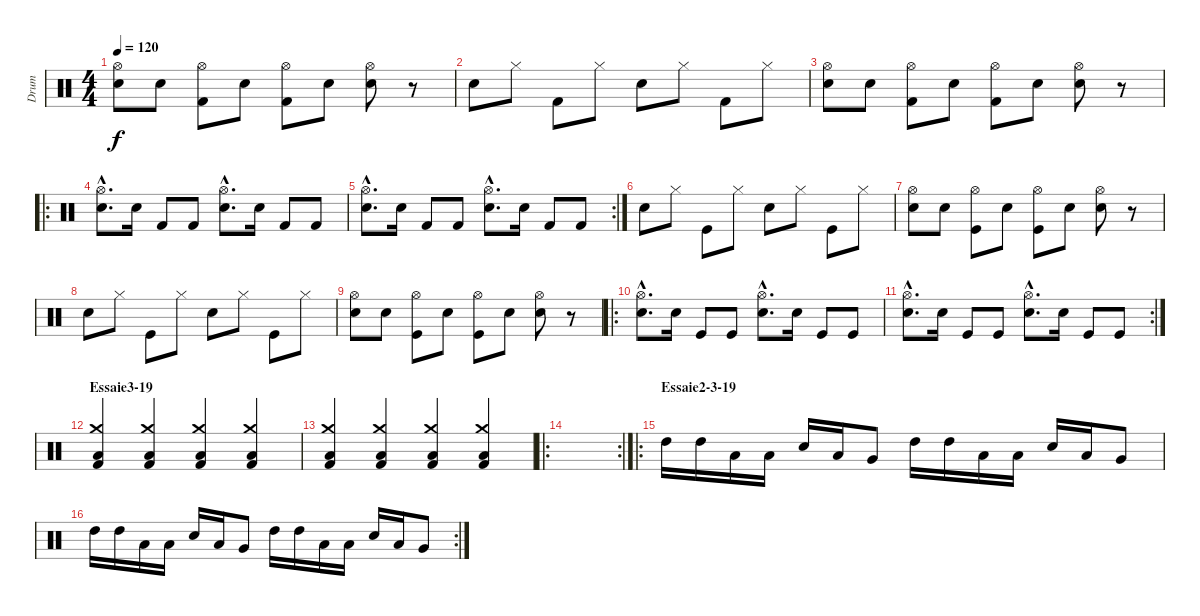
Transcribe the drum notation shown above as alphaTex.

\track ("Drum" "Drum") {instrument percussion}
\staff {score}
\articulation defaults
\ts (4 4)
\tempo 120
\clef neutral
\ks c
("Hi-Hat (open)" "Electric Snare (hit)").8{dy f} "Electric Snare (hit)".8 ("Hi-Hat (open)" "Kick (hit) 2").8 "Electric Snare (hit)".8 ("Hi-Hat (open)" "Kick (hit) 2").8 "Electric Snare (hit)".8 ("Hi-Hat (open)" "Electric Snare (hit)").8 r.8 |
"Snare (hit) 2".8 "Hi-Hat (closed)".8 "Kick (hit) 2".8 "Hi-Hat (closed)".8 "Snare (hit) 2".8 "Hi-Hat (closed)".8 "Kick (hit) 2".8 "Hi-Hat (closed)".8 |
("Hi-Hat (open)" "Snare (hit) 2").8 "Snare (hit) 2".8 ("Hi-Hat (open)" "Kick (hit) 2").8 "Snare (hit) 2".8 ("Hi-Hat (open)" "Kick (hit) 2").8 "Snare (hit) 2".8 ("Hi-Hat (open)" "Snare (hit) 2").8 r.8 |
\ro
("Hi-Hat (open)"{hac} "Snare (hit) 2"{hac}).8{d} "Snare (hit) 2".16 "Kick (hit) 2".8 "Kick (hit) 2".8 ("Hi-Hat (open)"{hac} "Snare (hit) 2"{hac}).8{d} "Snare (hit) 2".16 "Kick (hit) 2".8 "Kick (hit) 2".8 |
\rc 2
("Hi-Hat (open)"{hac} "Snare (hit) 2"{hac}).8{d} "Snare (hit) 2".16 "Kick (hit) 2".8 "Kick (hit) 2".8 ("Hi-Hat (open)"{hac} "Snare (hit) 2"{hac}).8{d} "Snare (hit) 2".16 "Kick (hit) 2".8 "Kick (hit) 2".8 |
"Snare (hit) 2".8 "Hi-Hat (closed)".8 "Kick (hit)".8 "Hi-Hat (closed)".8 "Snare (hit) 2".8 "Hi-Hat (closed)".8 "Kick (hit)".8 "Hi-Hat (closed)".8 |
("Hi-Hat (open)" "Snare (hit) 2").8 "Snare (hit) 2".8 ("Hi-Hat (open)" "Kick (hit)").8 "Snare (hit) 2".8 ("Hi-Hat (open)" "Kick (hit)").8 "Snare (hit) 2".8 ("Hi-Hat (open)" "Snare (hit) 2").8 r.8 |
"Snare (hit) 2".8 "Hi-Hat (closed)".8 "Kick (hit)".8 "Hi-Hat (closed)".8 "Snare (hit) 2".8 "Hi-Hat (closed)".8 "Kick (hit)".8 "Hi-Hat (closed)".8 |
("Hi-Hat (open)" "Snare (hit) 2").8 "Snare (hit) 2".8 ("Hi-Hat (open)" "Kick (hit)").8 "Snare (hit) 2".8 ("Hi-Hat (open)" "Kick (hit)").8 "Snare (hit) 2".8 ("Hi-Hat (open)" "Snare (hit) 2").8 r.8 |
\ro
("Hi-Hat (open)"{hac} "Snare (hit) 2"{hac}).8{d} "Snare (hit) 2".16 "Kick (hit)".8 "Kick (hit)".8 ("Hi-Hat (open)"{hac} "Snare (hit) 2"{hac}).8{d} "Snare (hit) 2".16 "Kick (hit)".8 "Kick (hit)".8 |
\rc 2
("Hi-Hat (open)"{hac} "Snare (hit) 2"{hac}).8{d} "Snare (hit) 2".16 "Kick (hit)".8 "Kick (hit)".8 ("Hi-Hat (open)"{hac} "Snare (hit) 2"{hac}).8{d} "Snare (hit) 2".16 "Kick (hit)".8 "Kick (hit)".8 |
\section ("" "Essaie3-19")
("Crash medium (hit)" "Low Tom (hit)" "Kick (hit) 2").4 ("Crash medium (hit)" "Low Tom (hit)" "Kick (hit) 2").4 ("Crash medium (hit)" "Low Tom (hit)" "Kick (hit) 2").4 ("Crash medium (hit)" "Low Tom (hit)" "Kick (hit) 2").4 |
("Crash medium (hit)" "Low Tom (hit)" "Kick (hit) 2").4 ("Crash medium (hit)" "Low Tom (hit)" "Kick (hit) 2").4 ("Crash medium (hit)" "Low Tom (hit)" "Kick (hit) 2").4 ("Crash medium (hit)" "Low Tom (hit)" "Kick (hit) 2").4 |
\ro
\rc 2
|
\ro
\section ("" "Essaie2-3-19")
"High Tom (hit)".16 "High Tom (hit)".16 "Low Tom (hit)".16 "Low Tom (hit)".16 "Snare (hit) 2".16 "Low Tom (hit)".16 "Very Low Tom (hit)".8 "High Tom (hit)".16 "High Tom (hit)".16 "Low Tom (hit)".16 "Low Tom (hit)".16 "Snare (hit) 2".16 "Low Tom (hit)".16 "Very Low Tom (hit)".8 |
\rc 2 "High Tom (hit)".16 "High Tom (hit)".16 "Low Tom (hit)".16 "Low Tom (hit)".16 "Snare (hit) 2".16 "Low Tom (hit)".16 "Very Low Tom (hit)".8 "High Tom (hit)".16 "High Tom (hit)".16 "Low Tom (hit)".16 "Low Tom (hit)".16 "Snare (hit) 2".16 "Low Tom (hit)".16 "Very Low Tom (hit)".8
